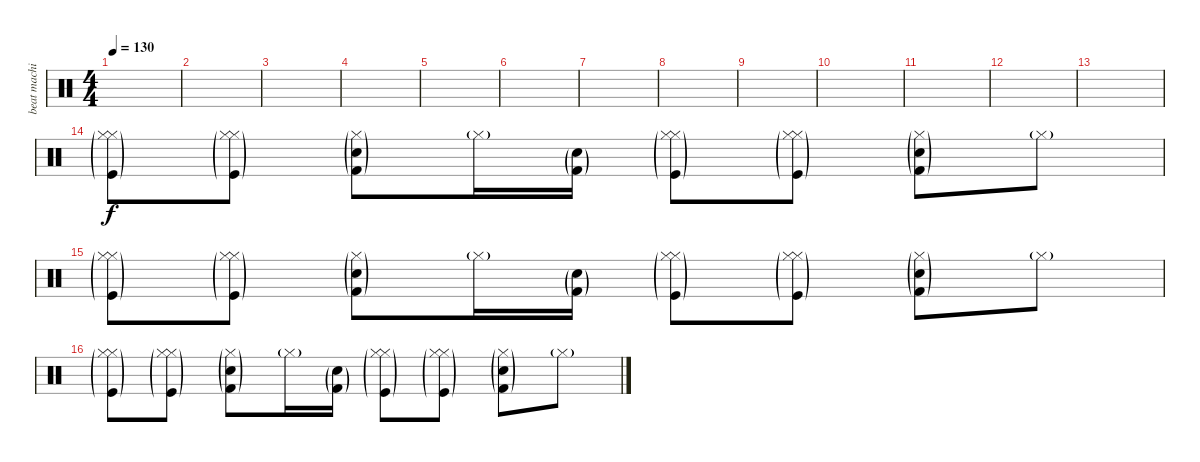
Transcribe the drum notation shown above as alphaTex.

\track ("beat machine" "beat machi") {instrument percussion}
\staff {score}
\articulation defaults
\ts (4 4)
\tempo 130
\clef neutral
\ks c
|
|
|
|
|
|
|
|
|
|
|
|
|
("Hi-Hat (closed)"{g} "Hi-Hat (closed)"{g} "Kick (hit)"{g}).8 ("Hi-Hat (closed)"{g} "Hi-Hat (closed)"{g} "Kick (hit)"{g}).8 ("Hi-Hat (closed)"{g} "Kick (hit) 2"{g} "Snare (hit) 2"{g}).8 "Hi-Hat (closed)"{g}.16 ("Kick (hit) 2"{g} "Snare (hit) 2"{g}).16 ("Hi-Hat (closed)"{g} "Hi-Hat (closed)"{g} "Kick (hit)"{g}).8 ("Hi-Hat (closed)"{g} "Hi-Hat (closed)"{g} "Kick (hit)"{g}).8 ("Hi-Hat (closed)"{g} "Kick (hit) 2"{g} "Snare (hit) 2"{g}).8 "Hi-Hat (closed)"{g}.8 |
("Hi-Hat (closed)"{g} "Hi-Hat (closed)"{g} "Kick (hit)"{g}).8 ("Hi-Hat (closed)"{g} "Hi-Hat (closed)"{g} "Kick (hit)"{g}).8 ("Hi-Hat (closed)"{g} "Kick (hit) 2"{g} "Snare (hit) 2"{g}).8 "Hi-Hat (closed)"{g}.16 ("Kick (hit) 2"{g} "Snare (hit) 2"{g}).16 ("Hi-Hat (closed)"{g} "Hi-Hat (closed)"{g} "Kick (hit)"{g}).8 ("Hi-Hat (closed)"{g} "Hi-Hat (closed)"{g} "Kick (hit)"{g}).8 ("Hi-Hat (closed)"{g} "Kick (hit) 2"{g} "Snare (hit) 2"{g}).8 "Hi-Hat (closed)"{g}.8 |
("Hi-Hat (closed)"{g} "Hi-Hat (closed)"{g} "Kick (hit)"{g}).8 ("Hi-Hat (closed)"{g} "Hi-Hat (closed)"{g} "Kick (hit)"{g}).8 ("Hi-Hat (closed)"{g} "Kick (hit) 2"{g} "Snare (hit) 2"{g}).8 "Hi-Hat (closed)"{g}.16 ("Kick (hit) 2"{g} "Snare (hit) 2"{g}).16 ("Hi-Hat (closed)"{g} "Hi-Hat (closed)"{g} "Kick (hit)"{g}).8 ("Hi-Hat (closed)"{g} "Hi-Hat (closed)"{g} "Kick (hit)"{g}).8 ("Hi-Hat (closed)"{g} "Kick (hit) 2"{g} "Snare (hit) 2"{g}).8 "Hi-Hat (closed)"{g}.8
